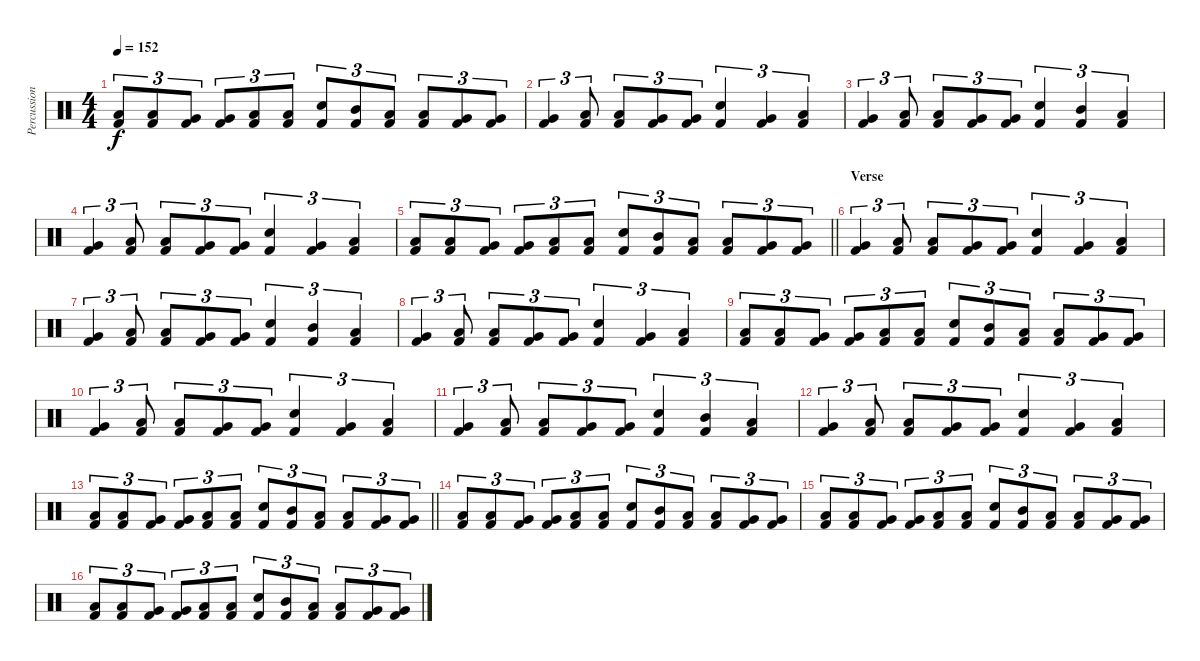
\track ("Percussion" "Percussion") {instrument percussion}
\staff {score}
\articulation defaults
\ts (4 4)
\tempo 152
\clef neutral
\ks c
("Kick (hit) 2" "Low Tom (hit)").8{tu (3 2) dy f} ("Kick (hit) 2" "Low Tom (hit)").8{tu (3 2)} ("Kick (hit) 2" "Very Low Tom (hit)").8{tu (3 2)} ("Kick (hit) 2" "Very Low Tom (hit)").8{tu (3 2)} ("Kick (hit) 2" "Low Floor Tom (hit)").8{tu (3 2)} ("Kick (hit) 2" "Low Floor Tom (hit)").8{tu (3 2)} ("Electric Snare (hit)" "Kick (hit) 2").8{tu (3 2)} ("Kick (hit) 2" "Mid Tom (hit)").8{tu (3 2)} ("Kick (hit) 2" "Low Tom (hit)").8{tu (3 2)} ("Kick (hit) 2" "Low Tom (hit)").8{tu (3 2)} ("Kick (hit) 2" "Very Low Tom (hit)").8{tu (3 2)} ("Kick (hit) 2" "Very Low Tom (hit)").8{tu (3 2)} |
("Kick (hit) 2" "Very Low Tom (hit)").4{tu (3 2)} ("Kick (hit) 2" "Low Tom (hit)").8{tu (3 2)} ("Kick (hit) 2" "Low Tom (hit)").8{tu (3 2)} ("Kick (hit) 2" "Very Low Tom (hit)").8{tu (3 2)} ("Kick (hit) 2" "Very Low Tom (hit)").8{tu (3 2)} ("Electric Snare (hit)" "Kick (hit) 2").4{tu (3 2)} ("Kick (hit) 2" "Very Low Tom (hit)").4{tu (3 2)} ("Kick (hit) 2" "Low Tom (hit)").4{tu (3 2)} |
("Kick (hit) 2" "Very Low Tom (hit)").4{tu (3 2)} ("Kick (hit) 2" "Low Tom (hit)").8{tu (3 2)} ("Kick (hit) 2" "Low Tom (hit)").8{tu (3 2)} ("Kick (hit) 2" "Very Low Tom (hit)").8{tu (3 2)} ("Kick (hit) 2" "Very Low Tom (hit)").8{tu (3 2)} ("Electric Snare (hit)" "Kick (hit) 2").4{tu (3 2)} ("Kick (hit) 2" "Mid Tom (hit)").4{tu (3 2)} ("Kick (hit) 2" "Low Tom (hit)").4{tu (3 2)} |
("Kick (hit) 2" "Very Low Tom (hit)").4{tu (3 2)} ("Kick (hit) 2" "Low Tom (hit)").8{tu (3 2)} ("Kick (hit) 2" "Low Tom (hit)").8{tu (3 2)} ("Kick (hit) 2" "Very Low Tom (hit)").8{tu (3 2)} ("Kick (hit) 2" "Very Low Tom (hit)").8{tu (3 2)} ("Electric Snare (hit)" "Kick (hit) 2").4{tu (3 2)} ("Kick (hit) 2" "Very Low Tom (hit)").4{tu (3 2)} ("Kick (hit) 2" "Low Tom (hit)").4{tu (3 2)} |
\barLineRight lightlight
("Kick (hit) 2" "Low Tom (hit)").8{tu (3 2)} ("Kick (hit) 2" "Low Tom (hit)").8{tu (3 2)} ("Kick (hit) 2" "Very Low Tom (hit)").8{tu (3 2)} ("Kick (hit) 2" "Very Low Tom (hit)").8{tu (3 2)} ("Kick (hit) 2" "Low Floor Tom (hit)").8{tu (3 2)} ("Kick (hit) 2" "Low Floor Tom (hit)").8{tu (3 2)} ("Electric Snare (hit)" "Kick (hit) 2").8{tu (3 2)} ("Kick (hit) 2" "Mid Tom (hit)").8{tu (3 2)} ("Kick (hit) 2" "Low Tom (hit)").8{tu (3 2)} ("Kick (hit) 2" "Low Tom (hit)").8{tu (3 2)} ("Kick (hit) 2" "Very Low Tom (hit)").8{tu (3 2)} ("Kick (hit) 2" "Very Low Tom (hit)").8{tu (3 2)} |
\section ("" "Verse")
("Kick (hit) 2" "Very Low Tom (hit)").4{tu (3 2)} ("Kick (hit) 2" "Low Tom (hit)").8{tu (3 2)} ("Kick (hit) 2" "Low Tom (hit)").8{tu (3 2)} ("Kick (hit) 2" "Very Low Tom (hit)").8{tu (3 2)} ("Kick (hit) 2" "Very Low Tom (hit)").8{tu (3 2)} ("Electric Snare (hit)" "Kick (hit) 2").4{tu (3 2)} ("Kick (hit) 2" "Very Low Tom (hit)").4{tu (3 2)} ("Kick (hit) 2" "Low Tom (hit)").4{tu (3 2)} |
("Kick (hit) 2" "Very Low Tom (hit)").4{tu (3 2)} ("Kick (hit) 2" "Low Tom (hit)").8{tu (3 2)} ("Kick (hit) 2" "Low Tom (hit)").8{tu (3 2)} ("Kick (hit) 2" "Very Low Tom (hit)").8{tu (3 2)} ("Kick (hit) 2" "Very Low Tom (hit)").8{tu (3 2)} ("Electric Snare (hit)" "Kick (hit) 2").4{tu (3 2)} ("Kick (hit) 2" "Mid Tom (hit)").4{tu (3 2)} ("Kick (hit) 2" "Low Tom (hit)").4{tu (3 2)} |
("Kick (hit) 2" "Very Low Tom (hit)").4{tu (3 2)} ("Kick (hit) 2" "Low Tom (hit)").8{tu (3 2)} ("Kick (hit) 2" "Low Tom (hit)").8{tu (3 2)} ("Kick (hit) 2" "Very Low Tom (hit)").8{tu (3 2)} ("Kick (hit) 2" "Very Low Tom (hit)").8{tu (3 2)} ("Electric Snare (hit)" "Kick (hit) 2").4{tu (3 2)} ("Kick (hit) 2" "Very Low Tom (hit)").4{tu (3 2)} ("Kick (hit) 2" "Low Tom (hit)").4{tu (3 2)} |
("Kick (hit) 2" "Low Tom (hit)").8{tu (3 2)} ("Kick (hit) 2" "Low Tom (hit)").8{tu (3 2)} ("Kick (hit) 2" "Very Low Tom (hit)").8{tu (3 2)} ("Kick (hit) 2" "Very Low Tom (hit)").8{tu (3 2)} ("Kick (hit) 2" "Low Floor Tom (hit)").8{tu (3 2)} ("Kick (hit) 2" "Low Floor Tom (hit)").8{tu (3 2)} ("Electric Snare (hit)" "Kick (hit) 2").8{tu (3 2)} ("Kick (hit) 2" "Mid Tom (hit)").8{tu (3 2)} ("Kick (hit) 2" "Low Tom (hit)").8{tu (3 2)} ("Kick (hit) 2" "Low Tom (hit)").8{tu (3 2)} ("Kick (hit) 2" "Very Low Tom (hit)").8{tu (3 2)} ("Kick (hit) 2" "Very Low Tom (hit)").8{tu (3 2)} |
("Kick (hit) 2" "Very Low Tom (hit)").4{tu (3 2)} ("Kick (hit) 2" "Low Tom (hit)").8{tu (3 2)} ("Kick (hit) 2" "Low Tom (hit)").8{tu (3 2)} ("Kick (hit) 2" "Very Low Tom (hit)").8{tu (3 2)} ("Kick (hit) 2" "Very Low Tom (hit)").8{tu (3 2)} ("Electric Snare (hit)" "Kick (hit) 2").4{tu (3 2)} ("Kick (hit) 2" "Very Low Tom (hit)").4{tu (3 2)} ("Kick (hit) 2" "Low Tom (hit)").4{tu (3 2)} |
("Kick (hit) 2" "Very Low Tom (hit)").4{tu (3 2)} ("Kick (hit) 2" "Low Tom (hit)").8{tu (3 2)} ("Kick (hit) 2" "Low Tom (hit)").8{tu (3 2)} ("Kick (hit) 2" "Very Low Tom (hit)").8{tu (3 2)} ("Kick (hit) 2" "Very Low Tom (hit)").8{tu (3 2)} ("Electric Snare (hit)" "Kick (hit) 2").4{tu (3 2)} ("Kick (hit) 2" "Mid Tom (hit)").4{tu (3 2)} ("Kick (hit) 2" "Low Tom (hit)").4{tu (3 2)} |
("Kick (hit) 2" "Very Low Tom (hit)").4{tu (3 2)} ("Kick (hit) 2" "Low Tom (hit)").8{tu (3 2)} ("Kick (hit) 2" "Low Tom (hit)").8{tu (3 2)} ("Kick (hit) 2" "Very Low Tom (hit)").8{tu (3 2)} ("Kick (hit) 2" "Very Low Tom (hit)").8{tu (3 2)} ("Electric Snare (hit)" "Kick (hit) 2").4{tu (3 2)} ("Kick (hit) 2" "Very Low Tom (hit)").4{tu (3 2)} ("Kick (hit) 2" "Low Tom (hit)").4{tu (3 2)} |
\barLineRight lightlight
("Kick (hit) 2" "Low Tom (hit)").8{tu (3 2)} ("Kick (hit) 2" "Low Tom (hit)").8{tu (3 2)} ("Kick (hit) 2" "Very Low Tom (hit)").8{tu (3 2)} ("Kick (hit) 2" "Very Low Tom (hit)").8{tu (3 2)} ("Kick (hit) 2" "Low Floor Tom (hit)").8{tu (3 2)} ("Kick (hit) 2" "Low Floor Tom (hit)").8{tu (3 2)} ("Electric Snare (hit)" "Kick (hit) 2").8{tu (3 2)} ("Kick (hit) 2" "Mid Tom (hit)").8{tu (3 2)} ("Kick (hit) 2" "Low Tom (hit)").8{tu (3 2)} ("Kick (hit) 2" "Low Tom (hit)").8{tu (3 2)} ("Kick (hit) 2" "Very Low Tom (hit)").8{tu (3 2)} ("Kick (hit) 2" "Very Low Tom (hit)").8{tu (3 2)} |
\section ("" "")
("Kick (hit) 2" "Low Tom (hit)").8{tu (3 2)} ("Kick (hit) 2" "Low Tom (hit)").8{tu (3 2)} ("Kick (hit) 2" "Very Low Tom (hit)").8{tu (3 2)} ("Kick (hit) 2" "Very Low Tom (hit)").8{tu (3 2)} ("Kick (hit) 2" "Low Floor Tom (hit)").8{tu (3 2)} ("Kick (hit) 2" "Low Floor Tom (hit)").8{tu (3 2)} ("Electric Snare (hit)" "Kick (hit) 2").8{tu (3 2)} ("Kick (hit) 2" "Mid Tom (hit)").8{tu (3 2)} ("Kick (hit) 2" "Low Tom (hit)").8{tu (3 2)} ("Kick (hit) 2" "Low Tom (hit)").8{tu (3 2)} ("Kick (hit) 2" "Very Low Tom (hit)").8{tu (3 2)} ("Kick (hit) 2" "Very Low Tom (hit)").8{tu (3 2)} |
("Kick (hit) 2" "Low Tom (hit)").8{tu (3 2)} ("Kick (hit) 2" "Low Tom (hit)").8{tu (3 2)} ("Kick (hit) 2" "Very Low Tom (hit)").8{tu (3 2)} ("Kick (hit) 2" "Very Low Tom (hit)").8{tu (3 2)} ("Kick (hit) 2" "Low Floor Tom (hit)").8{tu (3 2)} ("Kick (hit) 2" "Low Floor Tom (hit)").8{tu (3 2)} ("Electric Snare (hit)" "Kick (hit) 2").8{tu (3 2)} ("Kick (hit) 2" "Mid Tom (hit)").8{tu (3 2)} ("Kick (hit) 2" "Low Tom (hit)").8{tu (3 2)} ("Kick (hit) 2" "Low Tom (hit)").8{tu (3 2)} ("Kick (hit) 2" "Very Low Tom (hit)").8{tu (3 2)} ("Kick (hit) 2" "Very Low Tom (hit)").8{tu (3 2)} |
("Kick (hit) 2" "Low Tom (hit)").8{tu (3 2)} ("Kick (hit) 2" "Low Tom (hit)").8{tu (3 2)} ("Kick (hit) 2" "Very Low Tom (hit)").8{tu (3 2)} ("Kick (hit) 2" "Very Low Tom (hit)").8{tu (3 2)} ("Kick (hit) 2" "Low Floor Tom (hit)").8{tu (3 2)} ("Kick (hit) 2" "Low Floor Tom (hit)").8{tu (3 2)} ("Electric Snare (hit)" "Kick (hit) 2").8{tu (3 2)} ("Kick (hit) 2" "Mid Tom (hit)").8{tu (3 2)} ("Kick (hit) 2" "Low Tom (hit)").8{tu (3 2)} ("Kick (hit) 2" "Low Tom (hit)").8{tu (3 2)} ("Kick (hit) 2" "Very Low Tom (hit)").8{tu (3 2)} ("Kick (hit) 2" "Very Low Tom (hit)").8{tu (3 2)}
